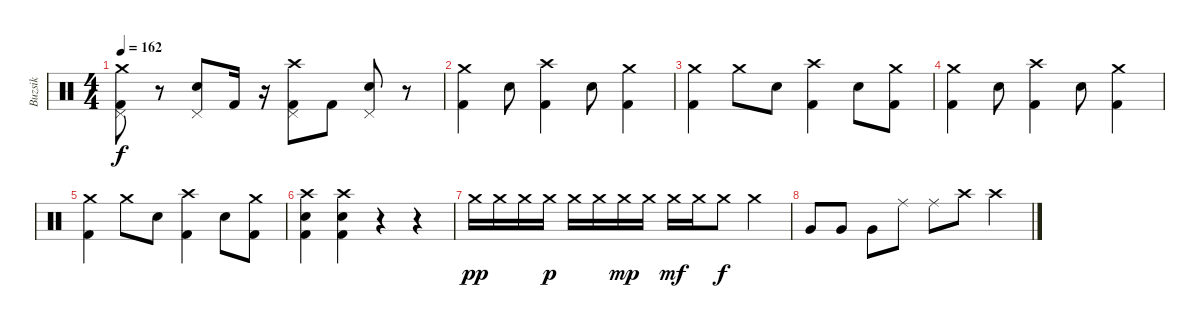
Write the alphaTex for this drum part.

\track ("Buzsik" "Buzsik") {instrument percussion}
\staff {score}
\articulation defaults
\ts (4 4)
\tempo 162
\clef neutral
\ks c
("Crash medium (hit)" "Pedal Hi-Hat (hit)" "Kick (hit) 2").8{dy f} r.8 ("Pedal Hi-Hat (hit)" "Electric Snare (hit)").8 "Kick (hit) 2".16 r.16 ("Crash high (hit)" "Pedal Hi-Hat (hit)" "Kick (hit) 2").8 "Kick (hit) 2".8 ("Pedal Hi-Hat (hit)" "Electric Snare (hit)").8 r.8 |
("Crash medium (hit)" "Kick (hit) 2").4 "Electric Snare (hit)".8 ("Crash high (hit)" "Kick (hit) 2").4 "Electric Snare (hit)".8 ("Crash medium (hit)" "Kick (hit) 2").4 |
("Crash medium (hit)" "Kick (hit) 2").4 "Crash medium (hit)".8 "Electric Snare (hit)".8 ("Crash high (hit)" "Kick (hit) 2").4 "Electric Snare (hit)".8 ("Crash medium (hit)" "Kick (hit) 2").8 |
("Crash medium (hit)" "Kick (hit) 2").4 "Electric Snare (hit)".8 ("Crash high (hit)" "Kick (hit) 2").4 "Electric Snare (hit)".8 ("Crash medium (hit)" "Kick (hit) 2").4 |
("Crash medium (hit)" "Kick (hit) 2").4 "Crash medium (hit)".8 "Electric Snare (hit)".8 ("Crash high (hit)" "Kick (hit) 2").4 "Electric Snare (hit)".8 ("Crash medium (hit)" "Kick (hit) 2").8 |
("Electric Snare (hit)" "Kick (hit) 2" "Crash high (hit)").4 ("Electric Snare (hit)" "Kick (hit) 2" "Crash high (hit)").4 r.4 r.4 |
"Crash medium (hit)".16{dy pp} "Crash medium (hit)".16 "Crash medium (hit)".16 "Crash medium (hit)".16{dy p} "Crash medium (hit)".16 "Crash medium (hit)".16 "Crash medium (hit)".16{dy mp} "Crash medium (hit)".16 "Crash medium (hit)".16{dy mf} "Crash medium (hit)".16 "Crash medium (hit)".8{dy f} "Crash medium (hit)".4 |
"Very Low Tom (hit)".8 "Very Low Tom (hit)".8 "Very Low Tom (hit)".8 "Ride (middle)".8 "Ride (middle)".8 "Crash high (hit)".8 "Crash high (hit)".4
